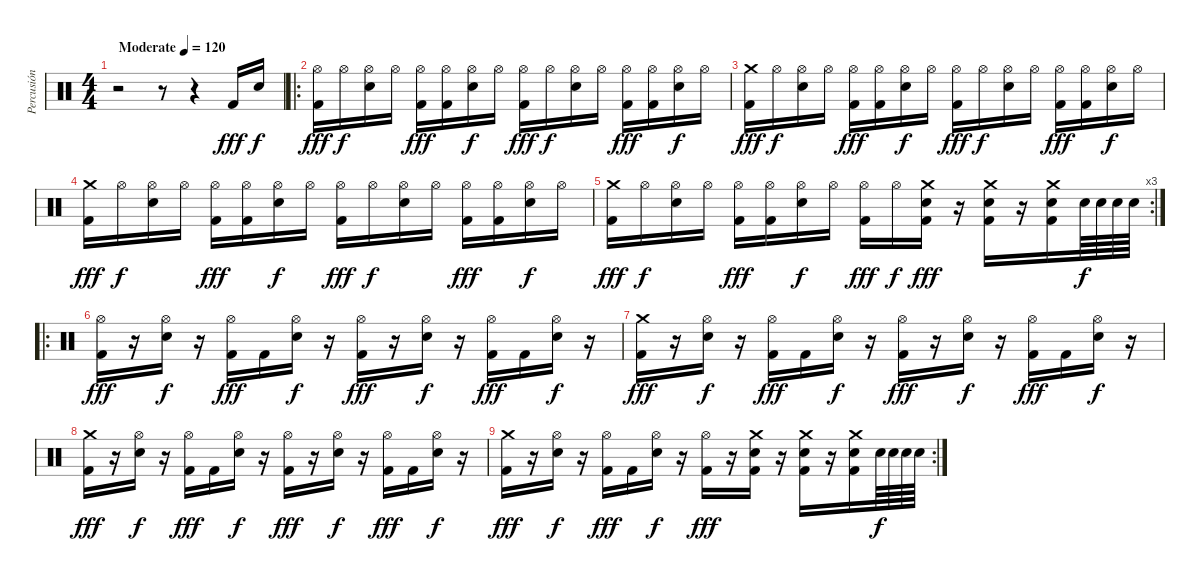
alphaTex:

\track ("Percusión" "Percusión") {instrument percussion}
\staff {score}
\articulation defaults
\ts (4 4)
\tempo (120 "Moderate")
\clef neutral
\ks c
r.2{dy fff} r.8 r.4 "Kick (hit) 2".16 "Electric Snare (hit)".16{dy f} |
\ro
("Hi-Hat (open)" "Kick (hit) 2").16{dy fff} "Hi-Hat (open)".16{dy f} ("Hi-Hat (open)" "Electric Snare (hit)").16 "Hi-Hat (open)".16 ("Hi-Hat (open)" "Kick (hit) 2").16{dy fff} ("Hi-Hat (open)" "Kick (hit) 2").16 ("Hi-Hat (open)" "Electric Snare (hit)").16{dy f} "Hi-Hat (open)".16 ("Hi-Hat (open)" "Kick (hit) 2").16{dy fff} "Hi-Hat (open)".16{dy f} ("Hi-Hat (open)" "Electric Snare (hit)").16 "Hi-Hat (open)".16 ("Hi-Hat (open)" "Kick (hit) 2").16{dy fff} ("Hi-Hat (open)" "Kick (hit) 2").16 ("Hi-Hat (open)" "Electric Snare (hit)").16{dy f} "Hi-Hat (open)".16 |
("Crash medium (hit)" "Kick (hit) 2").16{dy fff} "Hi-Hat (open)".16{dy f} ("Hi-Hat (open)" "Electric Snare (hit)").16 "Hi-Hat (open)".16 ("Hi-Hat (open)" "Kick (hit) 2").16{dy fff} ("Hi-Hat (open)" "Kick (hit) 2").16 ("Hi-Hat (open)" "Electric Snare (hit)").16{dy f} "Hi-Hat (open)".16 ("Hi-Hat (open)" "Kick (hit) 2").16{dy fff} "Hi-Hat (open)".16{dy f} ("Hi-Hat (open)" "Electric Snare (hit)").16 "Hi-Hat (open)".16 ("Hi-Hat (open)" "Kick (hit) 2").16{dy fff} ("Hi-Hat (open)" "Kick (hit) 2").16 ("Hi-Hat (open)" "Electric Snare (hit)").16{dy f} "Hi-Hat (open)".16 |
("Crash medium (hit)" "Kick (hit) 2").16{dy fff} "Hi-Hat (open)".16{dy f} ("Hi-Hat (open)" "Electric Snare (hit)").16 "Hi-Hat (open)".16 ("Hi-Hat (open)" "Kick (hit) 2").16{dy fff} ("Hi-Hat (open)" "Kick (hit) 2").16 ("Hi-Hat (open)" "Electric Snare (hit)").16{dy f} "Hi-Hat (open)".16 ("Hi-Hat (open)" "Kick (hit) 2").16{dy fff} "Hi-Hat (open)".16{dy f} ("Hi-Hat (open)" "Electric Snare (hit)").16 "Hi-Hat (open)".16 ("Hi-Hat (open)" "Kick (hit) 2").16{dy fff} ("Hi-Hat (open)" "Kick (hit) 2").16 ("Hi-Hat (open)" "Electric Snare (hit)").16{dy f} "Hi-Hat (open)".16 |
\rc 3
("Crash medium (hit)" "Kick (hit) 2").16{dy fff} "Hi-Hat (open)".16{dy f} ("Hi-Hat (open)" "Electric Snare (hit)").16 "Hi-Hat (open)".16 ("Hi-Hat (open)" "Kick (hit) 2").16{dy fff} ("Hi-Hat (open)" "Kick (hit) 2").16 ("Hi-Hat (open)" "Electric Snare (hit)").16{dy f} "Hi-Hat (open)".16 ("Hi-Hat (open)" "Kick (hit) 2").16{dy fff} "Hi-Hat (open)".16{dy f} ("Crash medium (hit)" "Electric Snare (hit)" "Kick (hit) 2").16{dy fff} r.16 ("Crash medium (hit)" "Electric Snare (hit)" "Kick (hit) 2").16 r.16 ("Crash medium (hit)" "Electric Snare (hit)" "Kick (hit) 2").16 "Electric Snare (hit)".64{dy f} "Electric Snare (hit)".64 "Electric Snare (hit)".64 "Electric Snare (hit)".64 |
\ro
("Hi-Hat (open)" "Kick (hit) 2").16{dy fff} r.16 ("Hi-Hat (open)" "Electric Snare (hit)").16{dy f} r.16 ("Hi-Hat (open)" "Kick (hit) 2").16{dy fff} "Kick (hit) 2".16 ("Hi-Hat (open)" "Electric Snare (hit)").16{dy f} r.16 ("Hi-Hat (open)" "Kick (hit) 2").16{dy fff} r.16 ("Hi-Hat (open)" "Electric Snare (hit)").16{dy f} r.16 ("Hi-Hat (open)" "Kick (hit) 2").16{dy fff} "Kick (hit) 2".16 ("Hi-Hat (open)" "Electric Snare (hit)").16{dy f} r.16 |
("Crash medium (hit)" "Kick (hit) 2").16{dy fff} r.16 ("Hi-Hat (open)" "Electric Snare (hit)").16{dy f} r.16 ("Hi-Hat (open)" "Kick (hit) 2").16{dy fff} "Kick (hit) 2".16 ("Hi-Hat (open)" "Electric Snare (hit)").16{dy f} r.16 ("Hi-Hat (open)" "Kick (hit) 2").16{dy fff} r.16 ("Hi-Hat (open)" "Electric Snare (hit)").16{dy f} r.16 ("Hi-Hat (open)" "Kick (hit) 2").16{dy fff} "Kick (hit) 2".16 ("Hi-Hat (open)" "Electric Snare (hit)").16{dy f} r.16 |
("Crash medium (hit)" "Kick (hit) 2").16{dy fff} r.16 ("Hi-Hat (open)" "Electric Snare (hit)").16{dy f} r.16 ("Hi-Hat (open)" "Kick (hit) 2").16{dy fff} "Kick (hit) 2".16 ("Hi-Hat (open)" "Electric Snare (hit)").16{dy f} r.16 ("Hi-Hat (open)" "Kick (hit) 2").16{dy fff} r.16 ("Hi-Hat (open)" "Electric Snare (hit)").16{dy f} r.16 ("Hi-Hat (open)" "Kick (hit) 2").16{dy fff} "Kick (hit) 2".16 ("Hi-Hat (open)" "Electric Snare (hit)").16{dy f} r.16 |
\rc 2
("Crash medium (hit)" "Kick (hit) 2").16{dy fff} r.16 ("Hi-Hat (open)" "Electric Snare (hit)").16{dy f} r.16 ("Hi-Hat (open)" "Kick (hit) 2").16{dy fff} "Kick (hit) 2".16 ("Hi-Hat (open)" "Electric Snare (hit)").16{dy f} r.16 ("Hi-Hat (open)" "Kick (hit) 2").16{dy fff} r.16 ("Crash medium (hit)" "Electric Snare (hit)" "Kick (hit) 2").16 r.16 ("Crash medium (hit)" "Electric Snare (hit)" "Kick (hit) 2").16 r.16 ("Crash medium (hit)" "Electric Snare (hit)" "Kick (hit) 2").16 "Electric Snare (hit)".64{dy f} "Electric Snare (hit)".64 "Electric Snare (hit)".64 "Electric Snare (hit)".64
